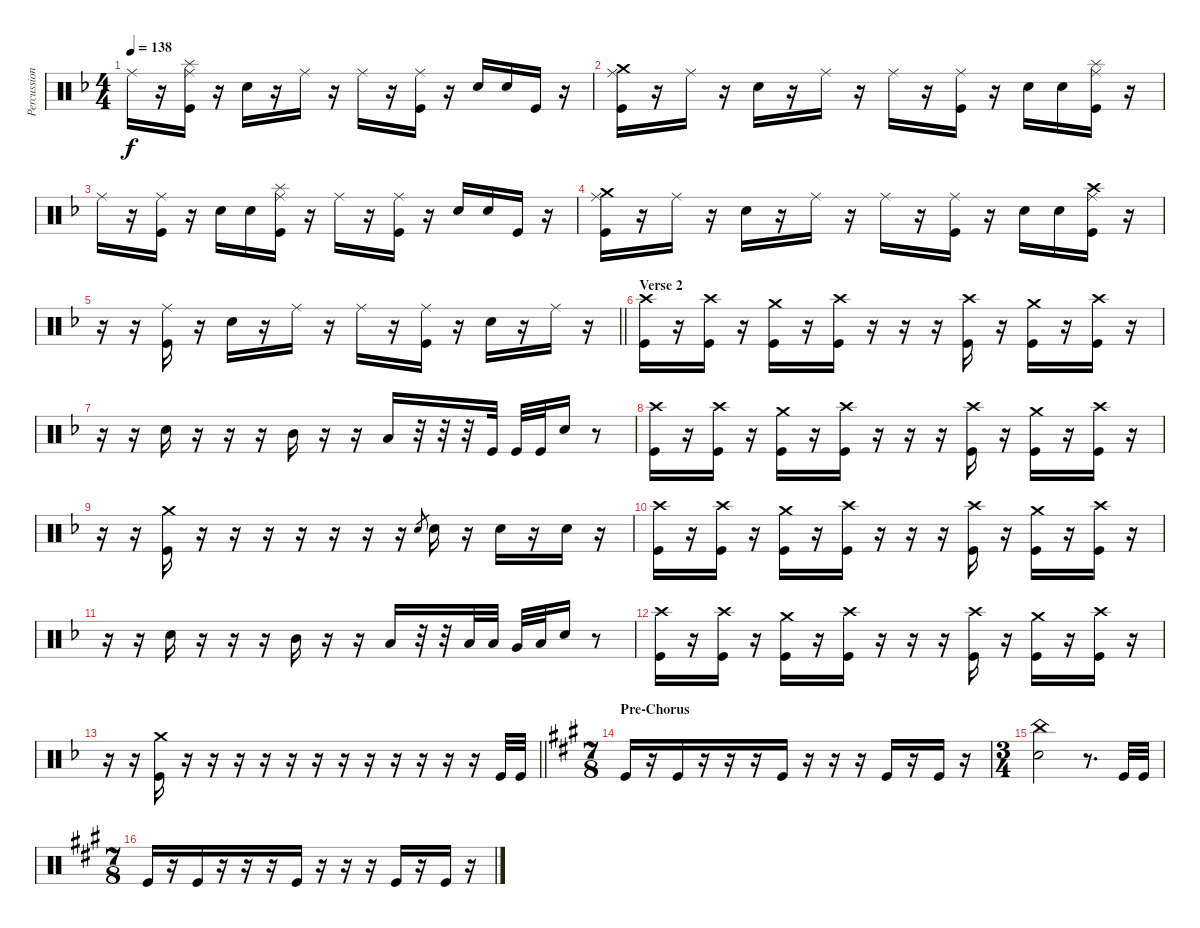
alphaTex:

\track ("Percussion" "Percussion") {instrument percussion}
\staff {score}
\articulation defaults
\ts (4 4)
\tempo 138
\clef neutral
\ks f "Ride (middle)".16{dy f}
r.16 ("Ride (middle)" "Splash (hit)" "Kick (hit)").16 r.16 "Electric Snare (hit)".16 r.16 "Ride (middle)".16 r.16 "Ride (middle)".16 r.16 ("Ride (middle)" "Kick (hit)").16 r.16 "Electric Snare (hit)".16 "Electric Snare (hit)".16 "Kick (hit)".16 r.16 |
("Ride (middle)" "Crash medium (hit)" "Kick (hit)").16 r.16 "Ride (middle)".16 r.16 "Electric Snare (hit)".16 r.16 "Ride (middle)".16 r.16 "Ride (middle)".16 r.16 ("Ride (middle)" "Kick (hit)").16 r.16 "Electric Snare (hit)".16 "Electric Snare (hit)".16 ("Ride (middle)" "Splash (hit)" "Kick (hit)").16 r.16 |
"Ride (middle)".16 r.16 ("Ride (middle)" "Kick (hit)").16 r.16 "Electric Snare (hit)".16 "Electric Snare (hit)".16 ("Ride (middle)" "Splash (hit)" "Kick (hit)").16 r.16 "Ride (middle)".16 r.16 ("Ride (middle)" "Kick (hit)").16 r.16 "Electric Snare (hit)".16 "Electric Snare (hit)".16 "Kick (hit)".16 r.16 |
("Ride (middle)" "Crash medium (hit)" "Kick (hit)").16 r.16 "Ride (middle)".16 r.16 "Electric Snare (hit)".16 r.16 "Ride (middle)".16 r.16 "Ride (middle)".16 r.16 ("Ride (middle)" "Kick (hit)").16 r.16 "Electric Snare (hit)".16 "Electric Snare (hit)".16 ("Ride (middle)" "Crash high (hit)" "Kick (hit)").16 r.16 |
\barLineRight lightlight
r.16 r.16 ("Ride (middle)" "Kick (hit)").16 r.16 "Electric Snare (hit)".16 r.16 "Ride (middle)".16 r.16 "Ride (middle)".16 r.16 ("Ride (middle)" "Kick (hit)").16 r.16 "Electric Snare (hit)".16 r.16 "Ride (middle)".16 r.16 |
\section ("" "Verse 2")
("Crash high (hit)" "Kick (hit)").16 r.16 ("Crash high (hit)" "Kick (hit)").16 r.16 ("Crash medium (hit)" "Kick (hit)").16 r.16 ("Crash high (hit)" "Kick (hit)").16 r.16 r.16 r.16 ("Crash high (hit)" "Kick (hit)").16 r.16 ("Crash medium (hit)" "Kick (hit)").16 r.16 ("Crash high (hit)" "Kick (hit)").16 r.16 |
r.16 r.16 "Electric Snare (hit)".16 r.16 r.16 r.16 "Mid Tom (hit)".16 r.16 r.16 "Low Tom (hit)".16 r.32 r.32 r.32 "Kick (hit)".32 "Kick (hit)".32 "Kick (hit)".32 "Electric Snare (hit)".16 r.8 |
("Crash high (hit)" "Kick (hit)").16 r.16 ("Crash high (hit)" "Kick (hit)").16 r.16 ("Crash medium (hit)" "Kick (hit)").16 r.16 ("Crash high (hit)" "Kick (hit)").16 r.16 r.16 r.16 ("Crash high (hit)" "Kick (hit)").16 r.16 ("Crash medium (hit)" "Kick (hit)").16 r.16 ("Crash high (hit)" "Kick (hit)").16 r.16 |
r.16 r.16 ("Crash medium (hit)" "Kick (hit)").16 r.16 r.16 r.16 r.16 r.16 r.16 r.16 "Electric Snare (hit)".8{gr} "Electric Snare (hit)".16 r.16 "Electric Snare (hit)".16 r.16 "Electric Snare (hit)".16 r.16 |
("Crash high (hit)" "Kick (hit)").16 r.16 ("Crash high (hit)" "Kick (hit)").16 r.16 ("Crash medium (hit)" "Kick (hit)").16 r.16 ("Crash high (hit)" "Kick (hit)").16 r.16 r.16 r.16 ("Crash high (hit)" "Kick (hit)").16 r.16 ("Crash medium (hit)" "Kick (hit)").16 r.16 ("Crash high (hit)" "Kick (hit)").16 r.16 |
r.16 r.16 "Electric Snare (hit)".16 r.16 r.16 r.16 "Mid Tom (hit)".16 r.16 r.16 "Low Tom (hit)".16 r.32 r.32 "Low Tom (hit)".32 "Low Tom (hit)".32 "Very Low Tom (hit)".32 "Low Floor Tom (hit)".32 "Electric Snare (hit)".16 r.8 |
("Crash high (hit)" "Kick (hit)").16 r.16 ("Crash high (hit)" "Kick (hit)").16 r.16 ("Crash medium (hit)" "Kick (hit)").16 r.16 ("Crash high (hit)" "Kick (hit)").16 r.16 r.16 r.16 ("Crash high (hit)" "Kick (hit)").16 r.16 ("Crash medium (hit)" "Kick (hit)").16 r.16 ("Crash high (hit)" "Kick (hit)").16 r.16 |
\barLineRight lightlight
r.16 r.16 ("Crash medium (hit)" "Kick (hit)").16 r.16 r.16 r.16 r.16 r.16 r.16 r.16 r.16 r.16 r.16 r.16 r.16 "Kick (hit)".32 "Kick (hit)".32 |
\ts (7 8)
\section ("" "Pre-Chorus")
\ks a "Kick (hit)".16
r.16 "Kick (hit)".16 r.16 r.16 r.16 "Kick (hit)".16 r.16 r.16 r.16 "Kick (hit)".16 r.16 "Kick (hit)".16 r.16 |
\ts (3 4)
("China (hit)" "Electric Snare (hit)").2 r.8{d} "Kick (hit)".32 "Kick (hit)".32 |
\ts (7 8)
"Kick (hit)".16 r.16 "Kick (hit)".16 r.16 r.16 r.16 "Kick (hit)".16 r.16 r.16 r.16 "Kick (hit)".16 r.16 "Kick (hit)".16 r.16
